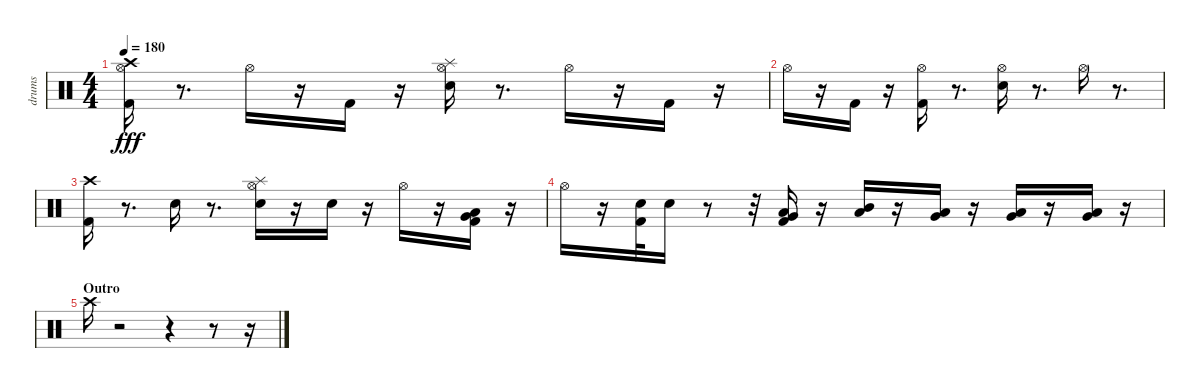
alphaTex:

\track ("drums" "drums") {instrument percussion}
\staff {score}
\articulation defaults
\ts (4 4)
\tempo 180
\clef neutral
\ks c
("Crash high (hit)" "Kick (hit) 2" "Hi-Hat (open)").16{dy fff} r.8{d} "Hi-Hat (open)".16 r.16 "Kick (hit) 2".16 r.16 ("Splash (hit)" "Electric Snare (hit)" "Hi-Hat (open)").16 r.8{d} "Hi-Hat (open)".16 r.16 "Kick (hit) 2".16 r.16 |
"Hi-Hat (open)".16 r.16 "Kick (hit) 2".16 r.16 ("Hi-Hat (open)" "Kick (hit) 2").16 r.8{d} ("Hi-Hat (open)" "Electric Snare (hit)").16 r.8{d} "Hi-Hat (open)".16 r.8{d} |
("Crash high (hit)" "Kick (hit) 2").16 r.8{d} "Electric Snare (hit)".16 r.8{d} ("Splash (hit)" "Hi-Hat (open)" "Electric Snare (hit)").16 r.16 "Electric Snare (hit)".16 r.16 "Hi-Hat (open)".16 r.16 ("Very Low Tom (hit)" "Low Floor Tom (hit)" "Kick (hit) 2").16 r.16 |
"Hi-Hat (open)".16 r.16 ("Electric Snare (hit)" "Kick (hit) 2").32 "Electric Snare (hit)".16 r.8 r.32 ("Low Tom (hit)" "Very Low Tom (hit)" "Kick (hit) 2").16 r.16 ("Low Tom (hit)" "Mid Tom (hit)").16 r.16 ("Very Low Tom (hit)" "Low Tom (hit)").16 r.16 ("Low Tom (hit)" "Very Low Tom (hit)").16 r.16 ("Very Low Tom (hit)" "Low Floor Tom (hit)").16 r.16 |
\section ("" "Outro")
"Crash high (hit)".16 r.2 r.4 r.8 r.16
